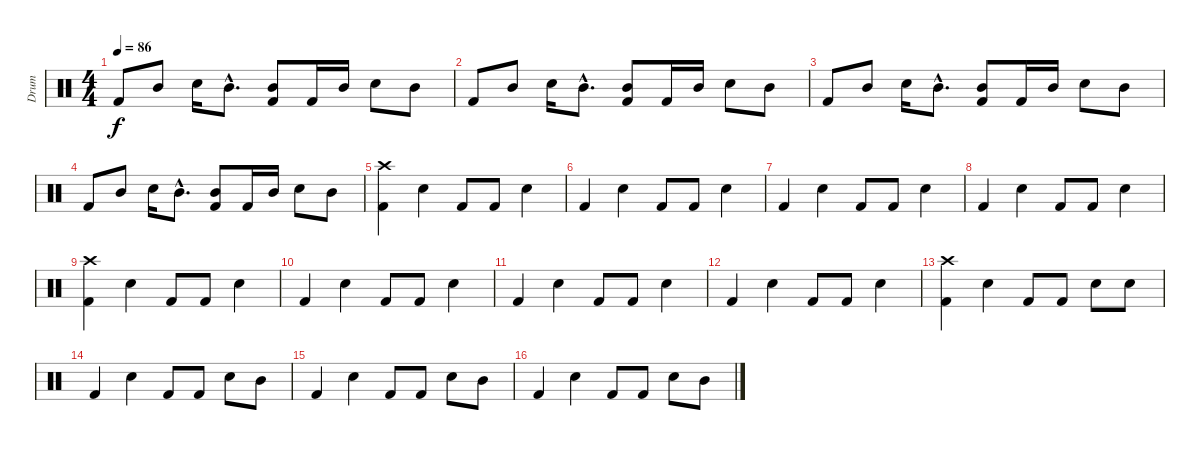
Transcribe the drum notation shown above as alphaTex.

\track ("Drum" "Drum") {instrument percussion}
\staff {score}
\articulation defaults
\ts (4 4)
\tempo 86
\clef neutral
\ks c "Kick (hit) 2".8{dy f} "Mid Tom (hit)".8 "Electric Snare (hit)".16 "Mid Tom (hit)"{hac}.8{d}
("Mid Tom (hit)" "Kick (hit) 2").8 "Kick (hit) 2".16 "Mid Tom (hit)".16 "Electric Snare (hit)".8 "Mid Tom (hit)".8 |
"Kick (hit) 2".8 "Mid Tom (hit)".8 "Electric Snare (hit)".16 "Mid Tom (hit)"{hac}.8{d} ("Mid Tom (hit)" "Kick (hit) 2").8 "Kick (hit) 2".16 "Mid Tom (hit)".16 "Electric Snare (hit)".8 "Mid Tom (hit)".8 |
"Kick (hit) 2".8 "Mid Tom (hit)".8 "Electric Snare (hit)".16 "Mid Tom (hit)"{hac}.8{d} ("Mid Tom (hit)" "Kick (hit) 2").8 "Kick (hit) 2".16 "Mid Tom (hit)".16 "Electric Snare (hit)".8 "Mid Tom (hit)".8 |
"Kick (hit) 2".8 "Mid Tom (hit)".8 "Electric Snare (hit)".16 "Mid Tom (hit)"{hac}.8{d} ("Mid Tom (hit)" "Kick (hit) 2").8 "Kick (hit) 2".16 "Mid Tom (hit)".16 "Electric Snare (hit)".8 "Mid Tom (hit)".8 |
("Crash high (hit)" "Kick (hit) 2").4 "Electric Snare (hit)".4 "Kick (hit) 2".8 "Kick (hit) 2".8 "Electric Snare (hit)".4 |
"Kick (hit) 2".4 "Electric Snare (hit)".4 "Kick (hit) 2".8 "Kick (hit) 2".8 "Electric Snare (hit)".4 |
"Kick (hit) 2".4 "Electric Snare (hit)".4 "Kick (hit) 2".8 "Kick (hit) 2".8 "Electric Snare (hit)".4 |
"Kick (hit) 2".4 "Electric Snare (hit)".4 "Kick (hit) 2".8 "Kick (hit) 2".8 "Electric Snare (hit)".4 |
("Crash high (hit)" "Kick (hit) 2").4 "Electric Snare (hit)".4 "Kick (hit) 2".8 "Kick (hit) 2".8 "Electric Snare (hit)".4 |
"Kick (hit) 2".4 "Electric Snare (hit)".4 "Kick (hit) 2".8 "Kick (hit) 2".8 "Electric Snare (hit)".4 |
"Kick (hit) 2".4 "Electric Snare (hit)".4 "Kick (hit) 2".8 "Kick (hit) 2".8 "Electric Snare (hit)".4 |
"Kick (hit) 2".4 "Electric Snare (hit)".4 "Kick (hit) 2".8 "Kick (hit) 2".8 "Electric Snare (hit)".4 |
("Crash high (hit)" "Kick (hit) 2").4 "Electric Snare (hit)".4 "Kick (hit) 2".8 "Kick (hit) 2".8 "Electric Snare (hit)".8 "Electric Snare (hit)".8 |
"Kick (hit) 2".4 "Electric Snare (hit)".4 "Kick (hit) 2".8 "Kick (hit) 2".8 "Electric Snare (hit)".8 "Mid Tom (hit)".8 |
"Kick (hit) 2".4 "Electric Snare (hit)".4 "Kick (hit) 2".8 "Kick (hit) 2".8 "Electric Snare (hit)".8 "Mid Tom (hit)".8 |
"Kick (hit) 2".4 "Electric Snare (hit)".4 "Kick (hit) 2".8 "Kick (hit) 2".8 "Electric Snare (hit)".8 "Mid Tom (hit)".8
